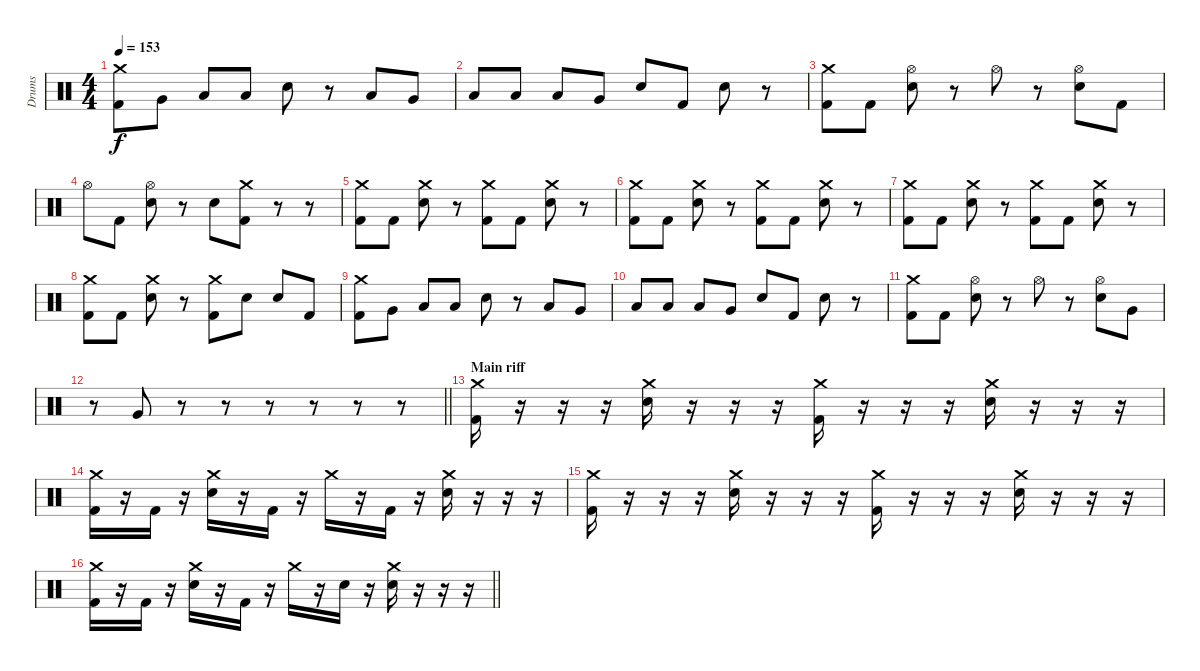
\track ("Drums" "Drums") {instrument percussion}
\staff {score}
\articulation defaults
\ts (4 4)
\tempo 153
\clef neutral
\ks c
("Crash medium (hit)" "Kick (hit) 2").8{dy f} "Very Low Tom (hit)".8 "Low Tom (hit)".8 "Low Tom (hit)".8 "Electric Snare (hit)".8 r.8 "Low Tom (hit)".8 "Very Low Tom (hit)".8 |
"Low Tom (hit)".8 "Low Tom (hit)".8 "Low Tom (hit)".8 "Very Low Tom (hit)".8 "Electric Snare (hit)".8 "Kick (hit) 2".8 "Electric Snare (hit)".8 r.8 |
("Crash medium (hit)" "Kick (hit) 2").8 "Kick (hit) 2".8 ("Hi-Hat (open)" "Electric Snare (hit)").8 r.8 "Hi-Hat (open)".8 r.8 ("Hi-Hat (open)" "Electric Snare (hit)").8 "Kick (hit) 2".8 |
"Hi-Hat (open)".8 "Kick (hit) 2".8 ("Hi-Hat (open)" "Electric Snare (hit)").8 r.8 "Electric Snare (hit)".8 ("Crash medium (hit)" "Kick (hit) 2").8 r.8 r.8 |
("Crash medium (hit)" "Kick (hit) 2").8 "Kick (hit) 2".8 ("Crash medium (hit)" "Electric Snare (hit)").8 r.8 ("Crash medium (hit)" "Kick (hit) 2").8 "Kick (hit) 2".8 ("Crash medium (hit)" "Electric Snare (hit)").8 r.8 |
("Crash medium (hit)" "Kick (hit) 2").8 "Kick (hit) 2".8 ("Crash medium (hit)" "Electric Snare (hit)").8 r.8 ("Crash medium (hit)" "Kick (hit) 2").8 "Kick (hit) 2".8 ("Crash medium (hit)" "Electric Snare (hit)").8 r.8 |
("Crash medium (hit)" "Kick (hit) 2").8 "Kick (hit) 2".8 ("Crash medium (hit)" "Electric Snare (hit)").8 r.8 ("Crash medium (hit)" "Kick (hit) 2").8 "Kick (hit) 2".8 ("Crash medium (hit)" "Electric Snare (hit)").8 r.8 |
("Crash medium (hit)" "Kick (hit) 2").8 "Kick (hit) 2".8 ("Crash medium (hit)" "Electric Snare (hit)").8 r.8 ("Crash medium (hit)" "Kick (hit) 2").8 "Electric Snare (hit)".8 "Electric Snare (hit)".8 "Kick (hit) 2".8 |
("Crash medium (hit)" "Kick (hit) 2").8 "Very Low Tom (hit)".8 "Low Tom (hit)".8 "Low Tom (hit)".8 "Electric Snare (hit)".8 r.8 "Low Tom (hit)".8 "Very Low Tom (hit)".8 |
"Low Tom (hit)".8 "Low Tom (hit)".8 "Low Tom (hit)".8 "Very Low Tom (hit)".8 "Electric Snare (hit)".8 "Kick (hit) 2".8 "Electric Snare (hit)".8 r.8 |
("Crash medium (hit)" "Kick (hit) 2").8 "Kick (hit) 2".8 ("Hi-Hat (open)" "Electric Snare (hit)").8 r.8 "Hi-Hat (open)".8 r.8 ("Hi-Hat (open)" "Electric Snare (hit)").8 "Very Low Tom (hit)".8 |
\barLineRight lightlight
r.8 "Very Low Tom (hit)".8 r.8 r.8 r.8 r.8 r.8 r.8 |
\section ("" "Main riff")
("Crash medium (hit)" "Kick (hit) 2").16 r.16 r.16 r.16 ("Crash medium (hit)" "Electric Snare (hit)").16 r.16 r.16 r.16 ("Crash medium (hit)" "Kick (hit) 2").16 r.16 r.16 r.16 ("Crash medium (hit)" "Electric Snare (hit)").16 r.16 r.16 r.16 |
("Crash medium (hit)" "Kick (hit) 2").16 r.16 "Kick (hit) 2".16 r.16 ("Crash medium (hit)" "Electric Snare (hit)").16 r.16 "Kick (hit) 2".16 r.16 "Crash medium (hit)".16 r.16 "Kick (hit) 2".16 r.16 ("Crash medium (hit)" "Electric Snare (hit)").16 r.16 r.16 r.16 |
("Crash medium (hit)" "Kick (hit) 2").16 r.16 r.16 r.16 ("Crash medium (hit)" "Electric Snare (hit)").16 r.16 r.16 r.16 ("Crash medium (hit)" "Kick (hit) 2").16 r.16 r.16 r.16 ("Crash medium (hit)" "Electric Snare (hit)").16 r.16 r.16 r.16 |
\barLineRight lightlight
("Crash medium (hit)" "Kick (hit) 2").16 r.16 "Kick (hit) 2".16 r.16 ("Crash medium (hit)" "Electric Snare (hit)").16 r.16 "Kick (hit) 2".16 r.16 "Crash medium (hit)".16 r.16 "Electric Snare (hit)".16 r.16 ("Crash medium (hit)" "Electric Snare (hit)").16 r.16 r.16 r.16
